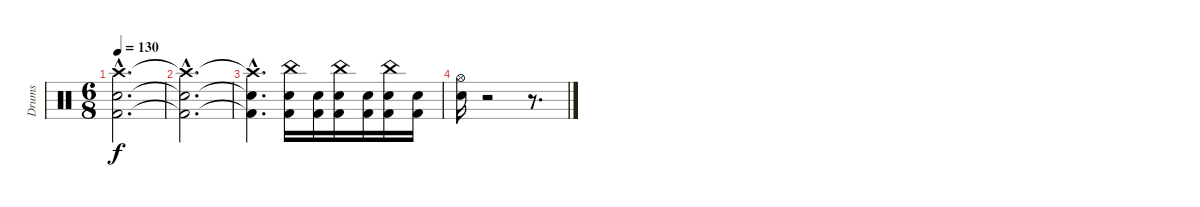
\track ("Drums" "Drums") {instrument percussion}
\staff {score}
\articulation defaults
\ts (6 8)
\tempo 130
\clef neutral
\ks c
("Crash high (hit)"{hac t} "Electric Snare (hit)"{hac t} "Kick (hit) 2"{hac t}).2{d dy f} |
("Crash high (hit)"{hac t} "Electric Snare (hit)"{hac t} "Kick (hit) 2"{hac t}).2{d} |
("Crash high (hit)"{hac t} "Electric Snare (hit)"{hac t} "Kick (hit) 2"{hac t}).4{d} ("China (hit)" "Electric Snare (hit)" "Kick (hit) 2").16 ("Electric Snare (hit)" "Kick (hit) 2").16 ("China (hit)" "Electric Snare (hit)" "Kick (hit) 2").16 ("Electric Snare (hit)" "Kick (hit) 2").16 ("China (hit)" "Electric Snare (hit)" "Kick (hit) 2").16 ("Electric Snare (hit)" "Kick (hit) 2").16 |
("Hi-Hat (open)" "Electric Snare (hit)").16 r.2 r.8{d}
